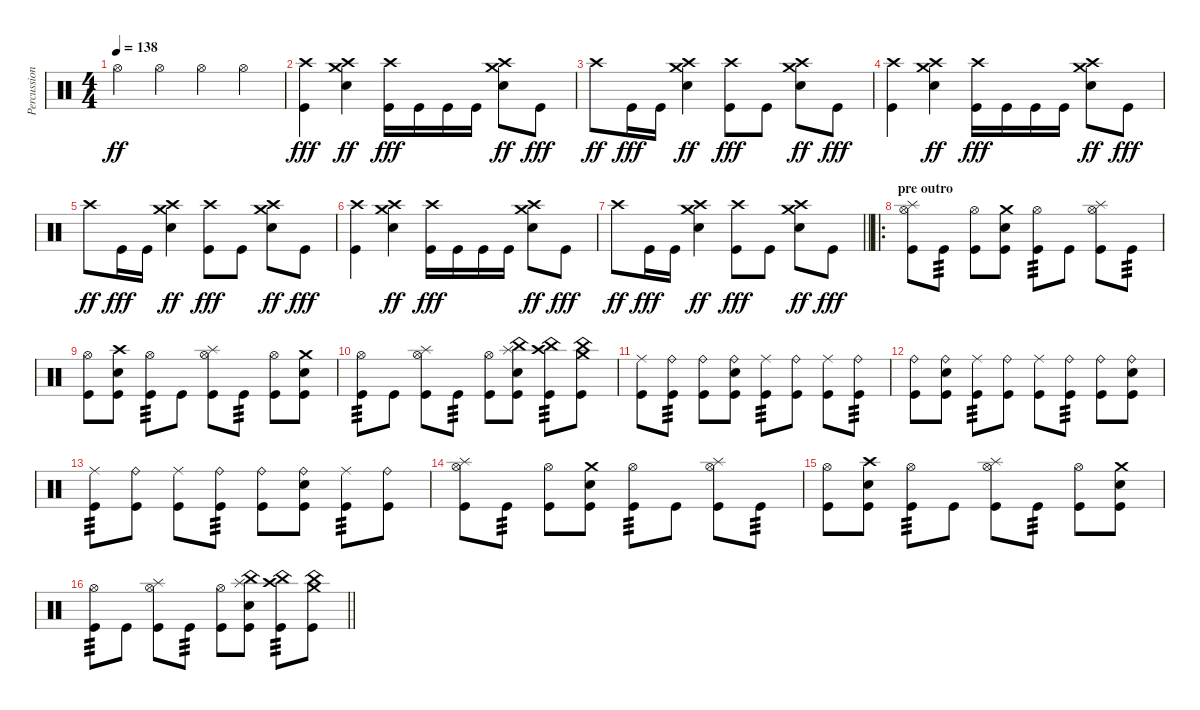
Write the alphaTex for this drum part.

\track ("Percussion" "Percussion") {instrument percussion}
\staff {score}
\articulation defaults
\ts (4 4)
\tempo 138
\clef neutral
\ks c "Hi-Hat (open)".4{dy ff} "Hi-Hat (open)".4 "Hi-Hat (open)".4 "Hi-Hat (open)".4
|
("Crash high (hit)" "Kick (hit)").4{dy fff} ("Crash medium (hit)" "Crash high (hit)" "Electric Snare (hit)").4{dy ff} ("Crash high (hit)" "Kick (hit)").16{dy fff} "Kick (hit)".16 "Kick (hit)".16 "Kick (hit)".16 ("Crash high (hit)" "Crash medium (hit)" "Electric Snare (hit)").8{dy ff} "Kick (hit)".8{dy fff} |
"Crash high (hit)".8{dy ff} "Kick (hit)".16{dy fff} "Kick (hit)".16 ("Crash high (hit)" "Crash medium (hit)" "Electric Snare (hit)").4{dy ff} ("Crash high (hit)" "Kick (hit)").8{dy fff} "Kick (hit)".8 ("Crash medium (hit)" "Crash high (hit)" "Electric Snare (hit)").8{dy ff} "Kick (hit)".8{dy fff} |
("Crash high (hit)" "Kick (hit)").4 ("Crash medium (hit)" "Crash high (hit)" "Electric Snare (hit)").4{dy ff} ("Crash high (hit)" "Kick (hit)").16{dy fff} "Kick (hit)".16 "Kick (hit)".16 "Kick (hit)".16 ("Crash high (hit)" "Crash medium (hit)" "Electric Snare (hit)").8{dy ff} "Kick (hit)".8{dy fff} |
"Crash high (hit)".8{dy ff} "Kick (hit)".16{dy fff} "Kick (hit)".16 ("Crash high (hit)" "Crash medium (hit)" "Electric Snare (hit)").4{dy ff} ("Crash high (hit)" "Kick (hit)").8{dy fff} "Kick (hit)".8 ("Crash medium (hit)" "Crash high (hit)" "Electric Snare (hit)").8{dy ff} "Kick (hit)".8{dy fff} |
("Crash high (hit)" "Kick (hit)").4 ("Crash medium (hit)" "Crash high (hit)" "Electric Snare (hit)").4{dy ff} ("Crash high (hit)" "Kick (hit)").16{dy fff} "Kick (hit)".16 "Kick (hit)".16 "Kick (hit)".16 ("Crash high (hit)" "Crash medium (hit)" "Electric Snare (hit)").8{dy ff} "Kick (hit)".8{dy fff} |
\barLineRight lightlight "Crash high (hit)".8{dy ff} "Kick (hit)".16{dy fff} "Kick (hit)".16
("Crash high (hit)" "Crash medium (hit)" "Electric Snare (hit)").4{dy ff} ("Crash high (hit)" "Kick (hit)").8{dy fff} "Kick (hit)".8 ("Crash medium (hit)" "Crash high (hit)" "Electric Snare (hit)").8{dy ff} "Kick (hit)".8{dy fff} |
\ro
\section ("" "pre outro")
("Splash (hit)" "Hi-Hat (open)" "Kick (hit)").8 "Kick (hit)".8{tp 3} ("Hi-Hat (open)" "Kick (hit)").8 ("Crash medium (hit)" "Electric Snare (hit)" "Kick (hit)").8 ("Hi-Hat (open)" "Kick (hit)").8{tp 3} "Kick (hit)".8 ("Splash (hit)" "Hi-Hat (open)" "Kick (hit)").8 "Kick (hit)".8{tp 3} |
("Hi-Hat (open)" "Kick (hit)").8 ("Crash high (hit)" "Electric Snare (hit)" "Kick (hit)").8 ("Hi-Hat (open)" "Kick (hit)").8{tp 3} "Kick (hit)".8 ("Splash (hit)" "Hi-Hat (open)" "Kick (hit)").8 "Kick (hit)".8{tp 3} ("Hi-Hat (open)" "Kick (hit)").8 ("Crash medium (hit)" "Electric Snare (hit)" "Kick (hit)").8 |
("Hi-Hat (open)" "Kick (hit)").8{tp 3} "Kick (hit)".8 ("Splash (hit)" "Hi-Hat (open)" "Kick (hit)").8 "Kick (hit)".8{tp 3} ("Hi-Hat (open)" "Kick (hit)").8 ("China (hit)" "Splash (hit)" "Electric Snare (hit)" "Kick (hit)").8 ("China (hit)" "Crash high (hit)" "Kick (hit)").8{tp 3} ("China (hit)" "Crash medium (hit)" "Kick (hit)").8 |
("Ride (middle)" "Kick (hit)").8 ("Ride (bell)" "Kick (hit)").8{tp 3} ("Ride (bell)" "Kick (hit)").8 ("Ride (bell)" "Electric Snare (hit)" "Kick (hit)").8 ("Ride (middle)" "Kick (hit)").8{tp 3} ("Ride (bell)" "Kick (hit)").8 ("Ride (middle)" "Kick (hit)").8 ("Ride (bell)" "Kick (hit)").8{tp 3} |
("Ride (bell)" "Kick (hit)").8 ("Ride (bell)" "Electric Snare (hit)" "Kick (hit)").8 ("Ride (middle)" "Kick (hit)").8{tp 3} ("Ride (bell)" "Kick (hit)").8 ("Ride (middle)" "Kick (hit)").8 ("Ride (bell)" "Kick (hit)").8{tp 3} ("Ride (bell)" "Kick (hit)").8 ("Ride (bell)" "Electric Snare (hit)" "Kick (hit)").8 |
("Ride (middle)" "Kick (hit)").8{tp 3} ("Ride (bell)" "Kick (hit)").8 ("Ride (middle)" "Kick (hit)").8 ("Ride (bell)" "Kick (hit)").8{tp 3} ("Ride (bell)" "Kick (hit)").8 ("Ride (bell)" "Electric Snare (hit)" "Kick (hit)").8 ("Ride (middle)" "Kick (hit)").8{tp 3} ("Ride (bell)" "Kick (hit)").8 |
("Splash (hit)" "Hi-Hat (open)" "Kick (hit)").8 "Kick (hit)".8{tp 3} ("Hi-Hat (open)" "Kick (hit)").8 ("Crash medium (hit)" "Electric Snare (hit)" "Kick (hit)").8 ("Hi-Hat (open)" "Kick (hit)").8{tp 3} "Kick (hit)".8 ("Splash (hit)" "Hi-Hat (open)" "Kick (hit)").8 "Kick (hit)".8{tp 3} |
("Hi-Hat (open)" "Kick (hit)").8 ("Crash high (hit)" "Electric Snare (hit)" "Kick (hit)").8 ("Hi-Hat (open)" "Kick (hit)").8{tp 3} "Kick (hit)".8 ("Splash (hit)" "Hi-Hat (open)" "Kick (hit)").8 "Kick (hit)".8{tp 3} ("Hi-Hat (open)" "Kick (hit)").8 ("Crash medium (hit)" "Electric Snare (hit)" "Kick (hit)").8 |
\barLineRight lightlight
("Hi-Hat (open)" "Kick (hit)").8{tp 3} "Kick (hit)".8 ("Splash (hit)" "Hi-Hat (open)" "Kick (hit)").8 "Kick (hit)".8{tp 3} ("Hi-Hat (open)" "Kick (hit)").8 ("China (hit)" "Splash (hit)" "Electric Snare (hit)" "Kick (hit)").8 ("China (hit)" "Crash high (hit)" "Kick (hit)").8{tp 3} ("China (hit)" "Crash medium (hit)" "Kick (hit)").8
